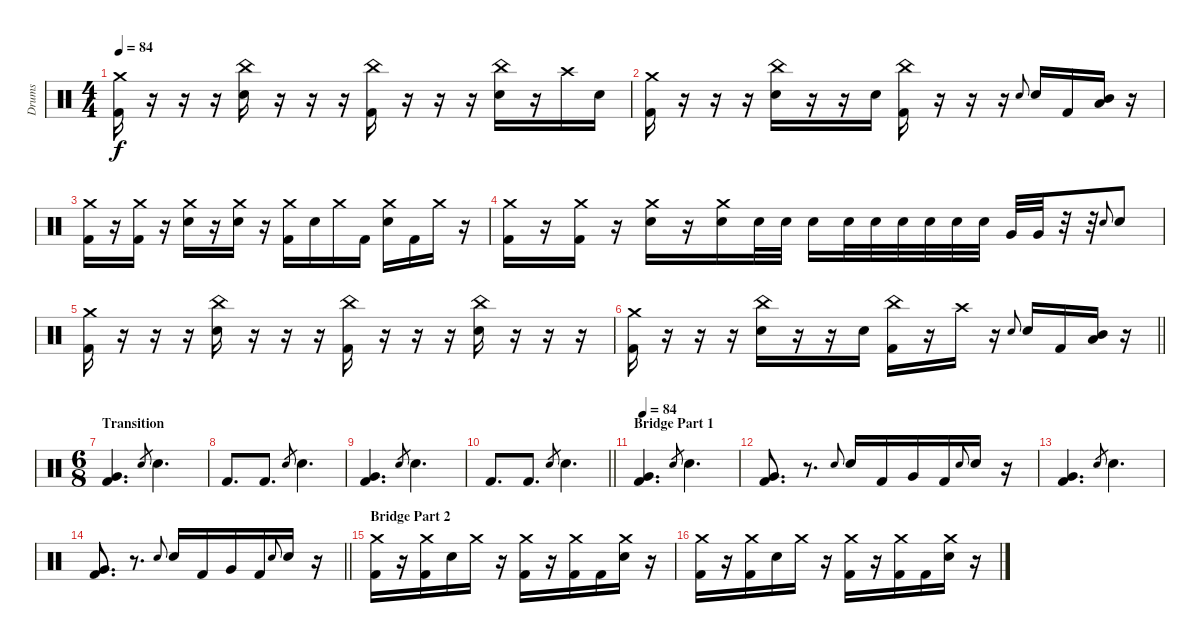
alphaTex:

\track ("Drums" "Drums") {instrument percussion}
\staff {score}
\articulation defaults
\ts (4 4)
\tempo 84
\clef neutral
\ks c
("Crash medium (hit)" "Kick (hit) 2").16{dy f} r.16 r.16 r.16 ("China (hit)" "Electric Snare (hit)").16 r.16 r.16 r.16 ("China (hit)" "Kick (hit) 2").16 r.16 r.16 r.16 ("China (hit)" "Electric Snare (hit)").16 r.16 "Crash high (hit)".16 "Electric Snare (hit)".16 |
("Crash medium (hit)" "Kick (hit) 2").16 r.16 r.16 r.16 ("China (hit)" "Electric Snare (hit)").16 r.16 r.16 "Electric Snare (hit)".16 ("China (hit)" "Kick (hit) 2").16 r.16 r.16 r.16 "Electric Snare (hit)".8{gr onbeat} "Electric Snare (hit)".16 "Kick (hit) 2".16 ("Mid Tom (hit)" "Low Tom (hit)").16 r.16 |
("Crash medium (hit)" "Kick (hit) 2").16 r.16 ("Crash medium (hit)" "Kick (hit) 2").16 r.16 ("Crash medium (hit)" "Electric Snare (hit)").16 r.16 ("Crash medium (hit)" "Electric Snare (hit)").16 r.16 ("Crash medium (hit)" "Kick (hit) 2").16 "Electric Snare (hit)".16 "Crash medium (hit)".16 "Kick (hit) 2".16 ("Crash medium (hit)" "Electric Snare (hit)").16 "Kick (hit) 2".16 "Crash medium (hit)".16 r.16 |
("Crash medium (hit)" "Kick (hit) 2").16 r.16 ("Crash medium (hit)" "Kick (hit) 2").16 r.16 ("Crash medium (hit)" "Electric Snare (hit)").16 r.16 ("Crash medium (hit)" "Electric Snare (hit)").16 "Electric Snare (hit)".32 "Electric Snare (hit)".32 "Electric Snare (hit)".16 "Electric Snare (hit)".32 "Electric Snare (hit)".32 "Electric Snare (hit)".32 "Electric Snare (hit)".32 "Electric Snare (hit)".32 "Electric Snare (hit)".32 "Very Low Tom (hit)".32 "Very Low Tom (hit)".32 r.32 r.32 "Electric Snare (hit)".8{gr onbeat} "Electric Snare (hit)".8 |
("Crash medium (hit)" "Kick (hit) 2").16 r.16 r.16 r.16 ("China (hit)" "Electric Snare (hit)").16 r.16 r.16 r.16 ("China (hit)" "Kick (hit) 2").16 r.16 r.16 r.16 ("China (hit)" "Electric Snare (hit)").16 r.16 r.16 r.16 |
\barLineRight lightlight
("Crash medium (hit)" "Kick (hit) 2").16 r.16 r.16 r.16 ("China (hit)" "Electric Snare (hit)").16 r.16 r.16 "Electric Snare (hit)".16 ("China (hit)" "Kick (hit) 2").16 r.16 "Crash high (hit)".16 r.16 "Electric Snare (hit)".8{gr onbeat} "Electric Snare (hit)".16 "Kick (hit) 2".16 ("Mid Tom (hit)" "Low Tom (hit)").16 r.16 |
\ts (6 8)
\section ("" "Transition")
("Very Low Tom (hit)" "Kick (hit) 2").4{d} "Electric Snare (hit)".8{gr} "Electric Snare (hit)".4{d} |
"Kick (hit) 2".8{d} "Kick (hit) 2".8{d} "Electric Snare (hit)".8{gr} "Electric Snare (hit)".4{d} |
("Very Low Tom (hit)" "Kick (hit) 2").4{d} "Electric Snare (hit)".8{gr} "Electric Snare (hit)".4{d} |
\barLineRight lightlight "Kick (hit) 2".8{d} "Kick (hit) 2".8{d} "Electric Snare (hit)".8{gr} "Electric Snare (hit)".4{d}
|
\section ("" "Bridge Part 1")
\tempo 84
("Very Low Tom (hit)" "Kick (hit) 2").4{d} "Electric Snare (hit)".8{gr} "Electric Snare (hit)".4{d} |
("Very Low Tom (hit)" "Kick (hit) 2").8{d} r.8{d} "Electric Snare (hit)".8{gr onbeat} "Electric Snare (hit)".16 "Kick (hit) 2".16 "Very Low Tom (hit)".16 "Kick (hit) 2".16 "Electric Snare (hit)".8{gr onbeat} "Electric Snare (hit)".16 r.16 |
("Very Low Tom (hit)" "Kick (hit) 2").4{d} "Electric Snare (hit)".8{gr} "Electric Snare (hit)".4{d} |
\barLineRight lightlight
("Very Low Tom (hit)" "Kick (hit) 2").8{d} r.8{d} "Electric Snare (hit)".8{gr onbeat} "Electric Snare (hit)".16 "Kick (hit) 2".16 "Very Low Tom (hit)".16 "Kick (hit) 2".16 "Electric Snare (hit)".8{gr onbeat} "Electric Snare (hit)".16 r.16 |
\section ("" "Bridge Part 2")
("Crash medium (hit)" "Kick (hit) 2").16 r.16 ("Crash medium (hit)" "Kick (hit) 2").16 "Electric Snare (hit)".16 "Crash medium (hit)".16 r.16 ("Crash medium (hit)" "Kick (hit) 2").16 r.16 ("Crash medium (hit)" "Kick (hit) 2").16 "Kick (hit) 2".16 ("Crash medium (hit)" "Electric Snare (hit)").16 r.16 |
("Crash medium (hit)" "Kick (hit) 2").16 r.16 ("Crash medium (hit)" "Kick (hit) 2").16 "Electric Snare (hit)".16 "Crash medium (hit)".16 r.16 ("Crash medium (hit)" "Kick (hit) 2").16 r.16 ("Crash medium (hit)" "Kick (hit) 2").16 "Kick (hit) 2".16 ("Crash medium (hit)" "Electric Snare (hit)").16 r.16
